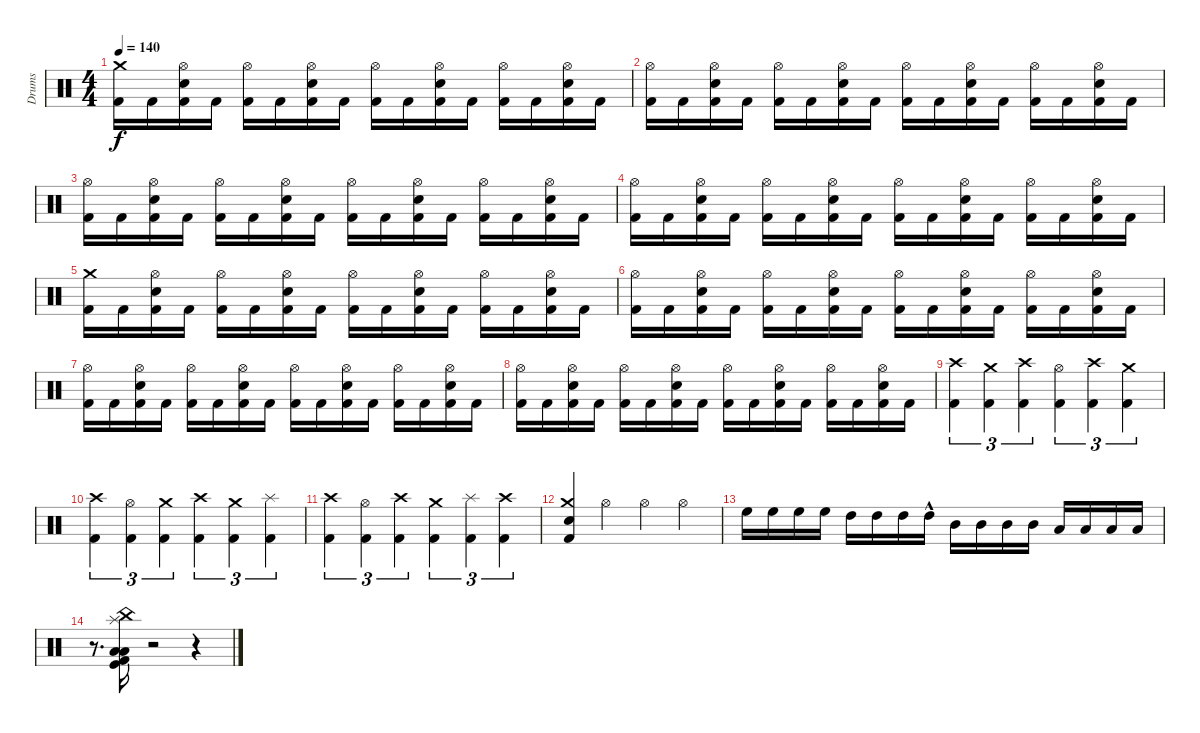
\track ("Drums" "Drums") {instrument percussion}
\staff {score}
\articulation defaults
\ts (4 4)
\tempo 140
\clef neutral
\ks c
("Kick (hit) 2" "Crash medium (hit)").16{dy f} "Kick (hit) 2".16 ("Electric Snare (hit)" "Hi-Hat (open)" "Kick (hit) 2").16 "Kick (hit) 2".16 ("Hi-Hat (open)" "Kick (hit) 2").16 "Kick (hit) 2".16 ("Hi-Hat (open)" "Electric Snare (hit)" "Kick (hit) 2").16 "Kick (hit) 2".16 ("Hi-Hat (open)" "Kick (hit) 2").16 "Kick (hit) 2".16 ("Electric Snare (hit)" "Kick (hit) 2" "Hi-Hat (open)").16 "Kick (hit) 2".16 ("Kick (hit) 2" "Hi-Hat (open)").16 "Kick (hit) 2".16 ("Electric Snare (hit)" "Hi-Hat (open)" "Kick (hit) 2").16 "Kick (hit) 2".16 |
("Kick (hit) 2" "Hi-Hat (open)").16 "Kick (hit) 2".16 ("Electric Snare (hit)" "Hi-Hat (open)" "Kick (hit) 2").16 "Kick (hit) 2".16 ("Hi-Hat (open)" "Kick (hit) 2").16 "Kick (hit) 2".16 ("Electric Snare (hit)" "Kick (hit) 2" "Hi-Hat (open)").16 "Kick (hit) 2".16 ("Kick (hit) 2" "Hi-Hat (open)").16 "Kick (hit) 2".16 ("Electric Snare (hit)" "Hi-Hat (open)" "Kick (hit) 2").16 "Kick (hit) 2".16 ("Kick (hit) 2" "Hi-Hat (open)").16 "Kick (hit) 2".16 ("Electric Snare (hit)" "Hi-Hat (open)" "Kick (hit) 2").16 "Kick (hit) 2".16 |
("Kick (hit) 2" "Hi-Hat (open)").16 "Kick (hit) 2".16 ("Electric Snare (hit)" "Kick (hit) 2" "Hi-Hat (open)").16 "Kick (hit) 2".16 ("Hi-Hat (open)" "Kick (hit) 2").16 "Kick (hit) 2".16 ("Electric Snare (hit)" "Kick (hit) 2" "Hi-Hat (open)").16 "Kick (hit) 2".16 ("Hi-Hat (open)" "Kick (hit) 2").16 "Kick (hit) 2".16 ("Hi-Hat (open)" "Kick (hit) 2" "Electric Snare (hit)").16 "Kick (hit) 2".16 ("Hi-Hat (open)" "Kick (hit) 2").16 "Kick (hit) 2".16 ("Hi-Hat (open)" "Kick (hit) 2" "Electric Snare (hit)").16 "Kick (hit) 2".16 |
("Hi-Hat (open)" "Kick (hit) 2").16 "Kick (hit) 2".16 ("Electric Snare (hit)" "Kick (hit) 2" "Hi-Hat (open)").16 "Kick (hit) 2".16 ("Hi-Hat (open)" "Kick (hit) 2").16 "Kick (hit) 2".16 ("Hi-Hat (open)" "Kick (hit) 2" "Electric Snare (hit)").16 "Kick (hit) 2".16 ("Hi-Hat (open)" "Kick (hit) 2").16 "Kick (hit) 2".16 ("Electric Snare (hit)" "Kick (hit) 2" "Hi-Hat (open)").16 "Kick (hit) 2".16 ("Kick (hit) 2" "Hi-Hat (open)").16 "Kick (hit) 2".16 ("Electric Snare (hit)" "Hi-Hat (open)" "Kick (hit) 2").16 "Kick (hit) 2".16 |
("Crash medium (hit)" "Kick (hit) 2").16 "Kick (hit) 2".16 ("Electric Snare (hit)" "Kick (hit) 2" "Hi-Hat (open)").16 "Kick (hit) 2".16 ("Hi-Hat (open)" "Kick (hit) 2").16 "Kick (hit) 2".16 ("Hi-Hat (open)" "Electric Snare (hit)" "Kick (hit) 2").16 "Kick (hit) 2".16 ("Kick (hit) 2" "Hi-Hat (open)").16 "Kick (hit) 2".16 ("Electric Snare (hit)" "Hi-Hat (open)" "Kick (hit) 2").16 "Kick (hit) 2".16 ("Hi-Hat (open)" "Kick (hit) 2").16 "Kick (hit) 2".16 ("Electric Snare (hit)" "Kick (hit) 2" "Hi-Hat (open)").16 "Kick (hit) 2".16 |
("Hi-Hat (open)" "Kick (hit) 2").16 "Kick (hit) 2".16 ("Kick (hit) 2" "Hi-Hat (open)" "Electric Snare (hit)").16 "Kick (hit) 2".16 ("Kick (hit) 2" "Hi-Hat (open)").16 "Kick (hit) 2".16 ("Hi-Hat (open)" "Kick (hit) 2" "Electric Snare (hit)").16 "Kick (hit) 2".16 ("Kick (hit) 2" "Hi-Hat (open)").16 "Kick (hit) 2".16 ("Hi-Hat (open)" "Kick (hit) 2" "Electric Snare (hit)").16 "Kick (hit) 2".16 ("Kick (hit) 2" "Hi-Hat (open)").16 "Kick (hit) 2".16 ("Hi-Hat (open)" "Electric Snare (hit)" "Kick (hit) 2").16 "Kick (hit) 2".16 |
("Kick (hit) 2" "Hi-Hat (open)").16 "Kick (hit) 2".16 ("Hi-Hat (open)" "Kick (hit) 2" "Electric Snare (hit)").16 "Kick (hit) 2".16 ("Kick (hit) 2" "Hi-Hat (open)").16 "Kick (hit) 2".16 ("Hi-Hat (open)" "Kick (hit) 2" "Electric Snare (hit)").16 "Kick (hit) 2".16 ("Kick (hit) 2" "Hi-Hat (open)").16 "Kick (hit) 2".16 ("Hi-Hat (open)" "Kick (hit) 2" "Electric Snare (hit)").16 "Kick (hit) 2".16 ("Hi-Hat (open)" "Kick (hit) 2").16 "Kick (hit) 2".16 ("Electric Snare (hit)" "Kick (hit) 2" "Hi-Hat (open)").16 "Kick (hit) 2".16 |
("Hi-Hat (open)" "Kick (hit) 2").16 "Kick (hit) 2".16 ("Hi-Hat (open)" "Kick (hit) 2" "Electric Snare (hit)").16 "Kick (hit) 2".16 ("Kick (hit) 2" "Hi-Hat (open)").16 "Kick (hit) 2".16 ("Hi-Hat (open)" "Electric Snare (hit)" "Kick (hit) 2").16 "Kick (hit) 2".16 ("Hi-Hat (open)" "Kick (hit) 2").16 "Kick (hit) 2".16 ("Electric Snare (hit)" "Kick (hit) 2" "Hi-Hat (open)").16 "Kick (hit) 2".16 ("Hi-Hat (open)" "Kick (hit) 2").16 "Kick (hit) 2".16 ("Hi-Hat (open)" "Kick (hit) 2" "Electric Snare (hit)").16 "Kick (hit) 2".16 |
("Crash high (hit)" "Kick (hit) 2").4{tu (3 2)} ("Crash medium (hit)" "Kick (hit) 2").4{tu (3 2)} ("Crash high (hit)" "Kick (hit) 2").4{tu (3 2)} ("Hi-Hat (open)" "Kick (hit) 2").4{tu (3 2)} ("Crash high (hit)" "Kick (hit) 2").4{tu (3 2)} ("Crash medium (hit)" "Kick (hit) 2").4{tu (3 2)} |
("Crash high (hit)" "Kick (hit) 2").4{tu (3 2)} ("Hi-Hat (open)" "Kick (hit) 2").4{tu (3 2)} ("Crash medium (hit)" "Kick (hit) 2").4{tu (3 2)} ("Crash high (hit)" "Kick (hit) 2").4{tu (3 2)} ("Crash medium (hit)" "Kick (hit) 2").4{tu (3 2)} ("Splash (hit)" "Kick (hit) 2").4{tu (3 2)} |
("Crash high (hit)" "Kick (hit) 2").4{tu (3 2)} ("Hi-Hat (open)" "Kick (hit) 2").4{tu (3 2)} ("Crash high (hit)" "Kick (hit) 2").4{tu (3 2)} ("Crash medium (hit)" "Kick (hit) 2").4{tu (3 2)} ("Splash (hit)" "Kick (hit) 2").4{tu (3 2)} ("Crash high (hit)" "Kick (hit) 2").4{tu (3 2)} |
("Crash medium (hit)" "Kick (hit) 2" "Electric Snare (hit)").4 "Hi-Hat (open)".4 "Hi-Hat (open)".4 "Hi-Hat (open)".4 |
"High Floor Tom (hit)".16 "High Floor Tom (hit)".16 "High Floor Tom (hit)".16 "High Floor Tom (hit)".16 "High Tom (hit)".16 "High Tom (hit)".16 "High Tom (hit)".16 "High Tom (hit)"{hac}.16 "Mid Tom (hit)".16 "Mid Tom (hit)".16 "Mid Tom (hit)".16 "Mid Tom (hit)".16 "Low Tom (hit)".16 "Low Tom (hit)".16 "Low Tom (hit)".16 "Low Tom (hit)".16 |
r.8{d} ("Low Tom (hit)" "Low Floor Tom (hit)" "Kick (hit) 2" "Kick (hit)" "Splash (hit)" "China (hit)").16 r.2 r.4
